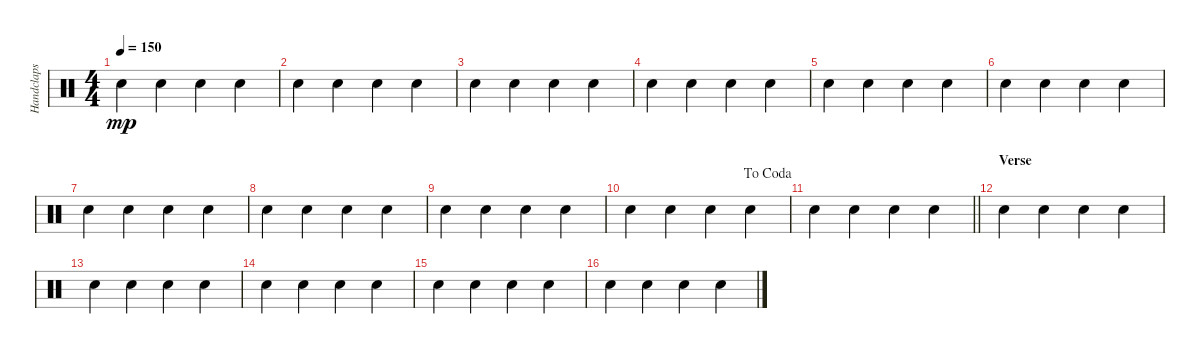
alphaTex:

\track ("Handclaps" "Handclaps") {instrument percussion}
\staff {score}
\articulation defaults
\ts (4 4)
\tempo 150
\clef neutral
\ks c "Hand Clap (hit)".4{dy mp} "Hand Clap (hit)".4 "Hand Clap (hit)".4 "Hand Clap (hit)".4
|
"Hand Clap (hit)".4 "Hand Clap (hit)".4 "Hand Clap (hit)".4 "Hand Clap (hit)".4 |
"Hand Clap (hit)".4 "Hand Clap (hit)".4 "Hand Clap (hit)".4 "Hand Clap (hit)".4 |
"Hand Clap (hit)".4 "Hand Clap (hit)".4 "Hand Clap (hit)".4 "Hand Clap (hit)".4 |
"Hand Clap (hit)".4 "Hand Clap (hit)".4 "Hand Clap (hit)".4 "Hand Clap (hit)".4 |
"Hand Clap (hit)".4 "Hand Clap (hit)".4 "Hand Clap (hit)".4 "Hand Clap (hit)".4 |
"Hand Clap (hit)".4 "Hand Clap (hit)".4 "Hand Clap (hit)".4 "Hand Clap (hit)".4 |
"Hand Clap (hit)".4 "Hand Clap (hit)".4 "Hand Clap (hit)".4 "Hand Clap (hit)".4 |
"Hand Clap (hit)".4 "Hand Clap (hit)".4 "Hand Clap (hit)".4 "Hand Clap (hit)".4 |
\jump dacoda "Hand Clap (hit)".4 "Hand Clap (hit)".4 "Hand Clap (hit)".4 "Hand Clap (hit)".4
|
\barLineRight lightlight "Hand Clap (hit)".4 "Hand Clap (hit)".4 "Hand Clap (hit)".4 "Hand Clap (hit)".4
|
\section ("" "Verse")
"Hand Clap (hit)".4 "Hand Clap (hit)".4 "Hand Clap (hit)".4 "Hand Clap (hit)".4 |
"Hand Clap (hit)".4 "Hand Clap (hit)".4 "Hand Clap (hit)".4 "Hand Clap (hit)".4 |
"Hand Clap (hit)".4 "Hand Clap (hit)".4 "Hand Clap (hit)".4 "Hand Clap (hit)".4 |
"Hand Clap (hit)".4 "Hand Clap (hit)".4 "Hand Clap (hit)".4 "Hand Clap (hit)".4 |
"Hand Clap (hit)".4 "Hand Clap (hit)".4 "Hand Clap (hit)".4 "Hand Clap (hit)".4
